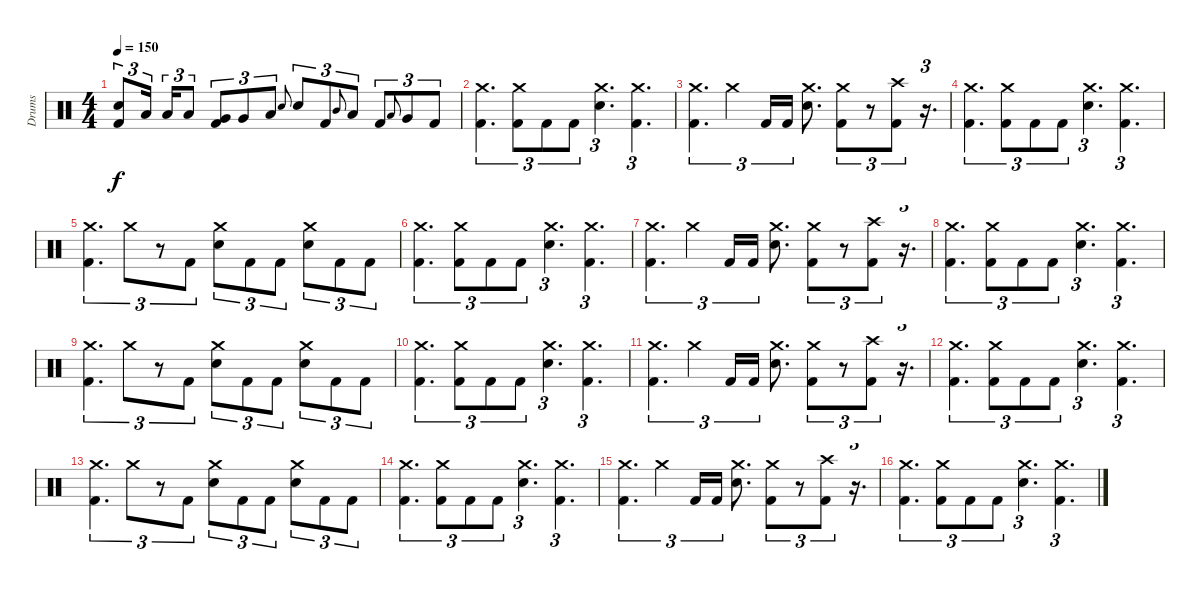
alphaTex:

\track ("Drums" "Drums") {instrument percussion}
\staff {score}
\articulation defaults
\ts (4 4)
\tempo 150
\clef neutral
\ks c
("Electric Snare (hit)" "Kick (hit) 2").8{tu (3 2) dy f volume 13} "Low Tom (hit)".16{tu (3 2) beam splitsecondary} "Low Tom (hit)".16{tu (3 2)} "Low Tom (hit)".8{tu (3 2)} ("Very Low Tom (hit)" "Kick (hit) 2").8{tu (3 2)} "Very Low Tom (hit)".8{tu (3 2)} "Low Floor Tom (hit)".8{tu (3 2)} "Electric Snare (hit)".8{gr onbeat} "Electric Snare (hit)".8{tu (3 2)} "Kick (hit) 2".8{tu (3 2)} "Mid Tom (hit)".8{gr onbeat} "Low Tom (hit)".8{tu (3 2)} "Kick (hit) 2".8{tu (3 2)} "Low Tom (hit)".8{gr onbeat} "Very Low Tom (hit)".8{tu (3 2)} "Kick (hit) 2".8{tu (3 2)} |
("Crash medium (hit)" "Kick (hit) 2").4{d tu (3 2)} ("Crash medium (hit)" "Kick (hit) 2").8{tu (3 2)} "Kick (hit) 2".8{tu (3 2)} "Kick (hit) 2".8{tu (3 2)} ("Crash medium (hit)" "Electric Snare (hit)").4{d tu (3 2)} ("Crash medium (hit)" "Kick (hit) 2").4{d tu (3 2)} |
("Crash medium (hit)" "Kick (hit) 2").4{d tu (3 2)} "Crash medium (hit)".4{tu (3 2)} "Kick (hit) 2".16{tu (3 2)} "Kick (hit) 2".16{tu (3 2)} ("Crash medium (hit)" "Electric Snare (hit)").8{d} ("Crash medium (hit)" "Kick (hit) 2").8{tu (3 2)} r.8{tu (3 2)} ("Crash high (hit)" "Kick (hit) 2").8{tu (3 2)} r.16{d tu (3 2)} |
("Crash medium (hit)" "Kick (hit) 2").4{d tu (3 2)} ("Crash medium (hit)" "Kick (hit) 2").8{tu (3 2)} "Kick (hit) 2".8{tu (3 2)} "Kick (hit) 2".8{tu (3 2)} ("Crash medium (hit)" "Electric Snare (hit)").4{d tu (3 2)} ("Crash medium (hit)" "Kick (hit) 2").4{d tu (3 2)} |
("Crash medium (hit)" "Kick (hit) 2").4{d tu (3 2)} "Crash medium (hit)".8{tu (3 2)} r.8{tu (3 2)} "Kick (hit) 2".8{tu (3 2)} ("Crash medium (hit)" "Electric Snare (hit)").8{tu (3 2)} "Kick (hit) 2".8{tu (3 2)} "Kick (hit) 2".8{tu (3 2)} ("Crash medium (hit)" "Electric Snare (hit)").8{tu (3 2)} "Kick (hit) 2".8{tu (3 2)} "Kick (hit) 2".8{tu (3 2)} |
("Crash medium (hit)" "Kick (hit) 2").4{d tu (3 2)} ("Crash medium (hit)" "Kick (hit) 2").8{tu (3 2)} "Kick (hit) 2".8{tu (3 2)} "Kick (hit) 2".8{tu (3 2)} ("Crash medium (hit)" "Electric Snare (hit)").4{d tu (3 2)} ("Crash medium (hit)" "Kick (hit) 2").4{d tu (3 2)} |
("Crash medium (hit)" "Kick (hit) 2").4{d tu (3 2)} "Crash medium (hit)".4{tu (3 2)} "Kick (hit) 2".16{tu (3 2)} "Kick (hit) 2".16{tu (3 2)} ("Crash medium (hit)" "Electric Snare (hit)").8{d} ("Crash medium (hit)" "Kick (hit) 2").8{tu (3 2)} r.8{tu (3 2)} ("Crash high (hit)" "Kick (hit) 2").8{tu (3 2)} r.16{d tu (3 2)} |
("Crash medium (hit)" "Kick (hit) 2").4{d tu (3 2)} ("Crash medium (hit)" "Kick (hit) 2").8{tu (3 2)} "Kick (hit) 2".8{tu (3 2)} "Kick (hit) 2".8{tu (3 2)} ("Crash medium (hit)" "Electric Snare (hit)").4{d tu (3 2)} ("Crash medium (hit)" "Kick (hit) 2").4{d tu (3 2)} |
("Crash medium (hit)" "Kick (hit) 2").4{d tu (3 2)} "Crash medium (hit)".8{tu (3 2)} r.8{tu (3 2)} "Kick (hit) 2".8{tu (3 2)} ("Crash medium (hit)" "Electric Snare (hit)").8{tu (3 2)} "Kick (hit) 2".8{tu (3 2)} "Kick (hit) 2".8{tu (3 2)} ("Crash medium (hit)" "Electric Snare (hit)").8{tu (3 2)} "Kick (hit) 2".8{tu (3 2)} "Kick (hit) 2".8{tu (3 2)} |
("Crash medium (hit)" "Kick (hit) 2").4{d tu (3 2)} ("Crash medium (hit)" "Kick (hit) 2").8{tu (3 2)} "Kick (hit) 2".8{tu (3 2)} "Kick (hit) 2".8{tu (3 2)} ("Crash medium (hit)" "Electric Snare (hit)").4{d tu (3 2)} ("Crash medium (hit)" "Kick (hit) 2").4{d tu (3 2)} |
("Crash medium (hit)" "Kick (hit) 2").4{d tu (3 2)} "Crash medium (hit)".4{tu (3 2)} "Kick (hit) 2".16{tu (3 2)} "Kick (hit) 2".16{tu (3 2)} ("Crash medium (hit)" "Electric Snare (hit)").8{d} ("Crash medium (hit)" "Kick (hit) 2").8{tu (3 2)} r.8{tu (3 2)} ("Crash high (hit)" "Kick (hit) 2").8{tu (3 2)} r.16{d tu (3 2)} |
("Crash medium (hit)" "Kick (hit) 2").4{d tu (3 2)} ("Crash medium (hit)" "Kick (hit) 2").8{tu (3 2)} "Kick (hit) 2".8{tu (3 2)} "Kick (hit) 2".8{tu (3 2)} ("Crash medium (hit)" "Electric Snare (hit)").4{d tu (3 2)} ("Crash medium (hit)" "Kick (hit) 2").4{d tu (3 2)} |
("Crash medium (hit)" "Kick (hit) 2").4{d tu (3 2)} "Crash medium (hit)".8{tu (3 2)} r.8{tu (3 2)} "Kick (hit) 2".8{tu (3 2)} ("Crash medium (hit)" "Electric Snare (hit)").8{tu (3 2)} "Kick (hit) 2".8{tu (3 2)} "Kick (hit) 2".8{tu (3 2)} ("Crash medium (hit)" "Electric Snare (hit)").8{tu (3 2)} "Kick (hit) 2".8{tu (3 2)} "Kick (hit) 2".8{tu (3 2)} |
("Crash medium (hit)" "Kick (hit) 2").4{d tu (3 2)} ("Crash medium (hit)" "Kick (hit) 2").8{tu (3 2)} "Kick (hit) 2".8{tu (3 2)} "Kick (hit) 2".8{tu (3 2)} ("Crash medium (hit)" "Electric Snare (hit)").4{d tu (3 2)} ("Crash medium (hit)" "Kick (hit) 2").4{d tu (3 2)} |
("Crash medium (hit)" "Kick (hit) 2").4{d tu (3 2)} "Crash medium (hit)".4{tu (3 2)} "Kick (hit) 2".16{tu (3 2)} "Kick (hit) 2".16{tu (3 2)} ("Crash medium (hit)" "Electric Snare (hit)").8{d} ("Crash medium (hit)" "Kick (hit) 2").8{tu (3 2)} r.8{tu (3 2)} ("Crash high (hit)" "Kick (hit) 2").8{tu (3 2)} r.16{d tu (3 2)} |
("Crash medium (hit)" "Kick (hit) 2").4{d tu (3 2)} ("Crash medium (hit)" "Kick (hit) 2").8{tu (3 2)} "Kick (hit) 2".8{tu (3 2)} "Kick (hit) 2".8{tu (3 2)} ("Crash medium (hit)" "Electric Snare (hit)").4{d tu (3 2)} ("Crash medium (hit)" "Kick (hit) 2").4{d tu (3 2)}
